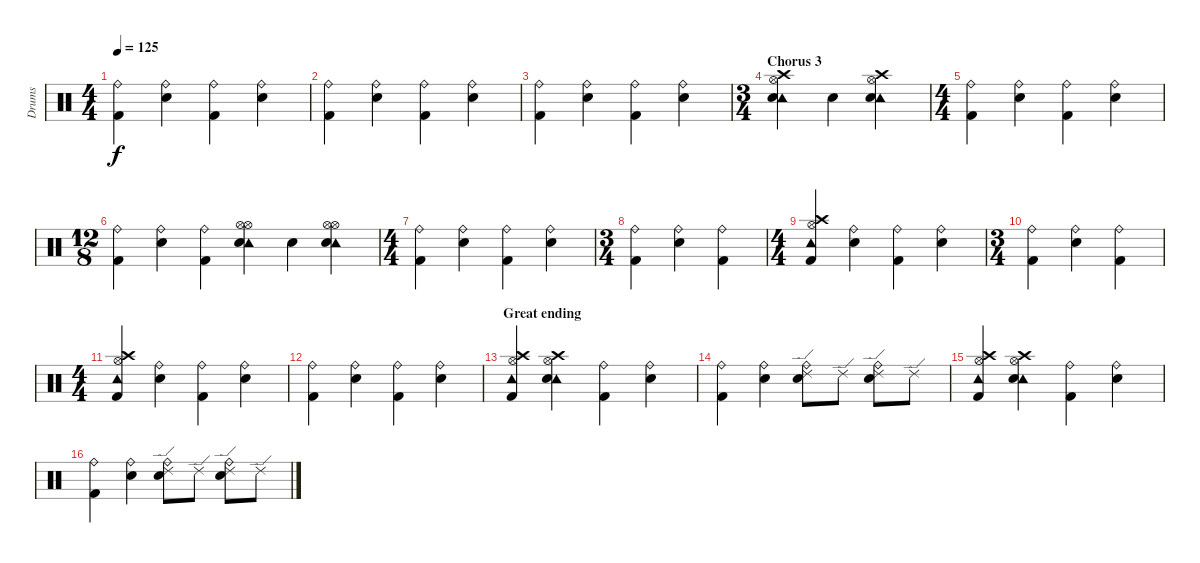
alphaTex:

\track ("Drums" "Drums") {instrument percussion}
\staff {score}
\articulation defaults
\ts (4 4)
\tempo 125
\clef neutral
\ks c
("Ride (bell)" "Kick (hit) 2").4{dy f} ("Ride (bell)" "Snare (hit) 2").4 ("Ride (bell)" "Kick (hit) 2").4 ("Ride (bell)" "Snare (hit) 2").4 |
("Ride (bell)" "Kick (hit) 2").4 ("Ride (bell)" "Snare (hit) 2").4 ("Ride (bell)" "Kick (hit) 2").4 ("Ride (bell)" "Snare (hit) 2").4 |
("Ride (bell)" "Kick (hit) 2").4 ("Ride (bell)" "Snare (hit) 2").4 ("Ride (bell)" "Kick (hit) 2").4 ("Ride (bell)" "Snare (hit) 2").4 |
\ts (3 4)
\section ("" "Chorus 3")
("Crash high (hit)" "Hi-Hat (open)" "Tambourine (hit)" "Snare (hit) 2").4 "Snare (hit) 2".4 ("Crash high (hit)" "Hi-Hat (open)" "Tambourine (hit)" "Snare (hit) 2").4 |
\ts (4 4)
("Ride (bell)" "Kick (hit) 2").4 ("Ride (bell)" "Snare (hit) 2").4 ("Ride (bell)" "Kick (hit) 2").4 ("Ride (bell)" "Snare (hit) 2").4 |
\ts (12 8)
("Ride (bell)" "Kick (hit) 2").4 ("Ride (bell)" "Snare (hit) 2").4 ("Ride (bell)" "Kick (hit) 2").4 ("Hi-Hat (open)" "Hi-Hat (open)" "Tambourine (hit)" "Snare (hit) 2").4 "Snare (hit) 2".4 ("Hi-Hat (open)" "Hi-Hat (open)" "Tambourine (hit)" "Snare (hit) 2").4 |
\ts (4 4)
("Ride (bell)" "Kick (hit) 2").4 ("Ride (bell)" "Snare (hit) 2").4 ("Ride (bell)" "Kick (hit) 2").4 ("Ride (bell)" "Snare (hit) 2").4 |
\ts (3 4)
("Ride (bell)" "Kick (hit) 2").4 ("Ride (bell)" "Snare (hit) 2").4 ("Ride (bell)" "Kick (hit) 2").4 |
\ts (4 4)
("Crash high (hit)" "Hi-Hat (open)" "Tambourine (hit)" "Kick (hit) 2").4 ("Ride (bell)" "Snare (hit) 2").4 ("Ride (bell)" "Kick (hit) 2").4 ("Ride (bell)" "Snare (hit) 2").4 |
\ts (3 4)
("Ride (bell)" "Kick (hit) 2").4 ("Ride (bell)" "Snare (hit) 2").4 ("Ride (bell)" "Kick (hit) 2").4 |
\ts (4 4)
("Crash high (hit)" "Hi-Hat (open)" "Tambourine (hit)" "Kick (hit) 2").4 ("Ride (bell)" "Snare (hit) 2").4 ("Ride (bell)" "Kick (hit) 2").4 ("Ride (bell)" "Snare (hit) 2").4 |
("Ride (bell)" "Kick (hit) 2").4 ("Ride (bell)" "Snare (hit) 2").4 ("Ride (bell)" "Kick (hit) 2").4 ("Ride (bell)" "Snare (hit) 2").4 |
\section ("" "Great ending")
("Crash high (hit)" "Hi-Hat (open)" "Tambourine (hit)" "Kick (hit) 2").4 ("Crash high (hit)" "Hi-Hat (open)" "Tambourine (hit)" "Snare (hit) 2").4 ("Ride (bell)" "Kick (hit) 2").4 ("Ride (bell)" "Snare (hit) 2").4 |
("Ride (bell)" "Kick (hit) 2").4 ("Ride (bell)" "Snare (hit) 2").4 ("Ride (bell)" "Ride (edge) 2" "Snare (hit) 2").8 "Ride (edge) 2".8 ("Ride (bell)" "Ride (edge) 2" "Snare (hit) 2").8 "Ride (edge) 2".8 |
("Crash high (hit)" "Hi-Hat (open)" "Tambourine (hit)" "Kick (hit) 2").4 ("Crash high (hit)" "Hi-Hat (open)" "Tambourine (hit)" "Snare (hit) 2").4 ("Ride (bell)" "Kick (hit) 2").4 ("Ride (bell)" "Snare (hit) 2").4 |
("Ride (bell)" "Kick (hit) 2").4 ("Ride (bell)" "Snare (hit) 2").4 ("Ride (bell)" "Ride (edge) 2" "Snare (hit) 2").8 "Ride (edge) 2".8 ("Ride (bell)" "Ride (edge) 2" "Snare (hit) 2").8 "Ride (edge) 2".8
